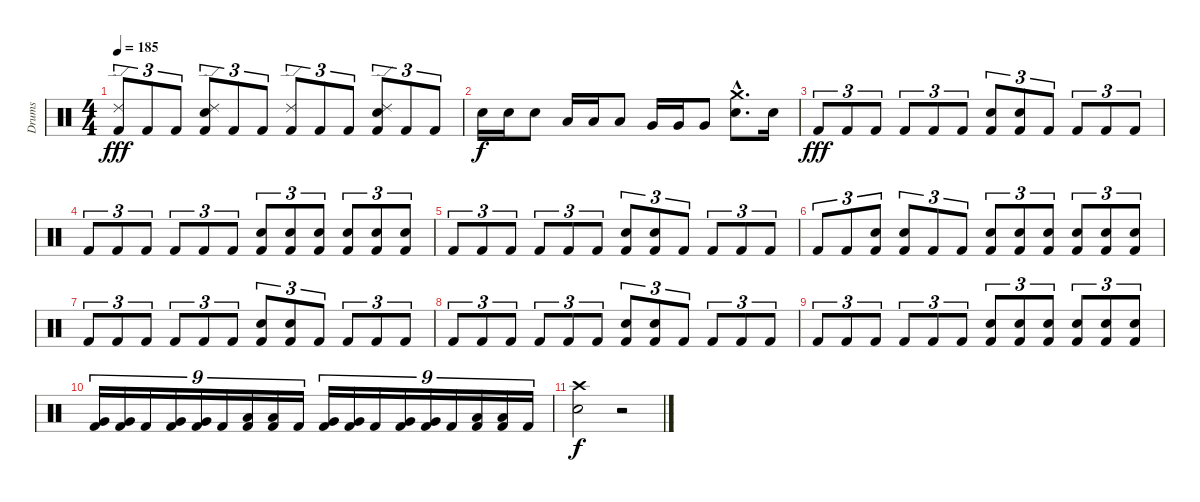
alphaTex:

\track ("Drums" "Drums") {instrument percussion}
\staff {score}
\articulation defaults
\ts (4 4)
\tempo 185
\clef neutral
\ks c
("Kick (hit) 2" "Ride (edge) 2").8{tu (3 2) dy fff} "Kick (hit) 2".8{tu (3 2)} "Kick (hit) 2".8{tu (3 2)} ("Kick (hit) 2" "Snare (hit) 2" "Ride (edge) 2").8{tu (3 2)} "Kick (hit) 2".8{tu (3 2)} "Kick (hit) 2".8{tu (3 2)} ("Kick (hit) 2" "Ride (edge) 2").8{tu (3 2)} "Kick (hit) 2".8{tu (3 2)} "Kick (hit) 2".8{tu (3 2)} ("Kick (hit) 2" "Snare (hit) 2" "Ride (edge) 2").8{tu (3 2)} "Kick (hit) 2".8{tu (3 2)} "Kick (hit) 2".8{tu (3 2)} |
"Snare (hit) 2".16{dy f} "Snare (hit) 2".16 "Snare (hit) 2".8 "Low Tom (hit)".16 "Low Tom (hit)".16 "Low Tom (hit)".8 "Very Low Tom (hit)".16 "Very Low Tom (hit)".16 "Very Low Tom (hit)".8 ("Snare (hit) 2"{hac} "Crash medium (hit)"{hac}).8{d} "Snare (hit) 2".16 |
"Kick (hit) 2".8{tu (3 2) dy fff} "Kick (hit) 2".8{tu (3 2)} "Kick (hit) 2".8{tu (3 2)} "Kick (hit) 2".8{tu (3 2)} "Kick (hit) 2".8{tu (3 2)} "Kick (hit) 2".8{tu (3 2)} ("Kick (hit) 2" "Snare (hit) 2").8{tu (3 2)} ("Kick (hit) 2" "Snare (hit) 2").8{tu (3 2)} "Kick (hit) 2".8{tu (3 2)} "Kick (hit) 2".8{tu (3 2)} "Kick (hit) 2".8{tu (3 2)} "Kick (hit) 2".8{tu (3 2)} |
"Kick (hit) 2".8{tu (3 2)} "Kick (hit) 2".8{tu (3 2)} "Kick (hit) 2".8{tu (3 2)} "Kick (hit) 2".8{tu (3 2)} "Kick (hit) 2".8{tu (3 2)} "Kick (hit) 2".8{tu (3 2)} ("Kick (hit) 2" "Snare (hit) 2").8{tu (3 2)} ("Kick (hit) 2" "Snare (hit) 2").8{tu (3 2)} ("Kick (hit) 2" "Snare (hit) 2").8{tu (3 2)} ("Kick (hit) 2" "Snare (hit) 2").8{tu (3 2)} ("Kick (hit) 2" "Snare (hit) 2").8{tu (3 2)} ("Kick (hit) 2" "Snare (hit) 2").8{tu (3 2)} |
"Kick (hit) 2".8{tu (3 2)} "Kick (hit) 2".8{tu (3 2)} "Kick (hit) 2".8{tu (3 2)} "Kick (hit) 2".8{tu (3 2)} "Kick (hit) 2".8{tu (3 2)} "Kick (hit) 2".8{tu (3 2)} ("Kick (hit) 2" "Snare (hit) 2").8{tu (3 2)} ("Kick (hit) 2" "Snare (hit) 2").8{tu (3 2)} "Kick (hit) 2".8{tu (3 2)} "Kick (hit) 2".8{tu (3 2)} "Kick (hit) 2".8{tu (3 2)} "Kick (hit) 2".8{tu (3 2)} |
"Kick (hit) 2".8{tu (3 2)} "Kick (hit) 2".8{tu (3 2)} ("Kick (hit) 2" "Snare (hit) 2").8{tu (3 2)} ("Kick (hit) 2" "Snare (hit) 2").8{tu (3 2)} "Kick (hit) 2".8{tu (3 2)} "Kick (hit) 2".8{tu (3 2)} ("Kick (hit) 2" "Snare (hit) 2").8{tu (3 2)} ("Kick (hit) 2" "Snare (hit) 2").8{tu (3 2)} ("Kick (hit) 2" "Snare (hit) 2").8{tu (3 2)} ("Kick (hit) 2" "Snare (hit) 2").8{tu (3 2)} ("Kick (hit) 2" "Snare (hit) 2").8{tu (3 2)} ("Kick (hit) 2" "Snare (hit) 2").8{tu (3 2)} |
"Kick (hit) 2".8{tu (3 2)} "Kick (hit) 2".8{tu (3 2)} "Kick (hit) 2".8{tu (3 2)} "Kick (hit) 2".8{tu (3 2)} "Kick (hit) 2".8{tu (3 2)} "Kick (hit) 2".8{tu (3 2)} ("Kick (hit) 2" "Snare (hit) 2").8{tu (3 2)} ("Kick (hit) 2" "Snare (hit) 2").8{tu (3 2)} "Kick (hit) 2".8{tu (3 2)} "Kick (hit) 2".8{tu (3 2)} "Kick (hit) 2".8{tu (3 2)} "Kick (hit) 2".8{tu (3 2)} |
"Kick (hit) 2".8{tu (3 2)} "Kick (hit) 2".8{tu (3 2)} "Kick (hit) 2".8{tu (3 2)} "Kick (hit) 2".8{tu (3 2)} "Kick (hit) 2".8{tu (3 2)} "Kick (hit) 2".8{tu (3 2)} ("Kick (hit) 2" "Snare (hit) 2").8{tu (3 2)} ("Kick (hit) 2" "Snare (hit) 2").8{tu (3 2)} "Kick (hit) 2".8{tu (3 2)} "Kick (hit) 2".8{tu (3 2)} "Kick (hit) 2".8{tu (3 2)} "Kick (hit) 2".8{tu (3 2)} |
"Kick (hit) 2".8{tu (3 2)} "Kick (hit) 2".8{tu (3 2)} "Kick (hit) 2".8{tu (3 2)} "Kick (hit) 2".8{tu (3 2)} "Kick (hit) 2".8{tu (3 2)} "Kick (hit) 2".8{tu (3 2)} ("Kick (hit) 2" "Snare (hit) 2").8{tu (3 2)} ("Kick (hit) 2" "Snare (hit) 2").8{tu (3 2)} ("Kick (hit) 2" "Snare (hit) 2").8{tu (3 2)} ("Kick (hit) 2" "Snare (hit) 2").8{tu (3 2)} ("Kick (hit) 2" "Snare (hit) 2").8{tu (3 2)} ("Kick (hit) 2" "Snare (hit) 2").8{tu (3 2)} |
("Kick (hit) 2" "Very Low Tom (hit)").16{tu (9 8)} ("Kick (hit) 2" "Very Low Tom (hit)").16{tu (9 8)} "Kick (hit) 2".16{tu (9 8)} ("Kick (hit) 2" "Very Low Tom (hit)").16{tu (9 8)} ("Kick (hit) 2" "Very Low Tom (hit)").16{tu (9 8)} "Kick (hit) 2".16{tu (9 8)} ("Kick (hit) 2" "Low Floor Tom (hit)").16{tu (9 8)} ("Kick (hit) 2" "Low Floor Tom (hit)").16{tu (9 8)} "Kick (hit) 2".16{tu (9 8)} ("Kick (hit) 2" "Very Low Tom (hit)").16{tu (9 8)} ("Kick (hit) 2" "Very Low Tom (hit)").16{tu (9 8)} "Kick (hit) 2".16{tu (9 8)} ("Kick (hit) 2" "Very Low Tom (hit)").16{tu (9 8)} ("Kick (hit) 2" "Very Low Tom (hit)").16{tu (9 8)} "Kick (hit) 2".16{tu (9 8)} ("Kick (hit) 2" "Low Floor Tom (hit)").16{tu (9 8)} ("Kick (hit) 2" "Low Floor Tom (hit)").16{tu (9 8)} "Kick (hit) 2".16{tu (9 8)} |
("Snare (hit) 2" "Crash high (hit)").2{dy f} r.2
